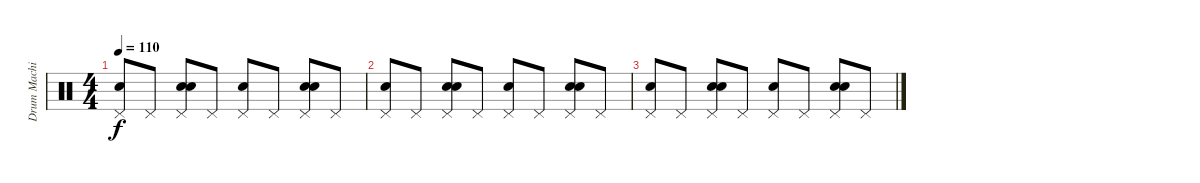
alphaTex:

\track ("Drum Machine" "Drum Machi") {instrument percussion}
\staff {score}
\articulation defaults
\ts (4 4)
\tempo 110
\clef neutral
\ks c
("Pedal Hi-Hat (hit)" "Snare (hit) 2").8{dy f} "Pedal Hi-Hat (hit)".8 ("Pedal Hi-Hat (hit)" "Snare (hit) 2" "Hand Clap (hit)").8 "Pedal Hi-Hat (hit)".8 ("Pedal Hi-Hat (hit)" "Snare (hit) 2").8 "Pedal Hi-Hat (hit)".8 ("Pedal Hi-Hat (hit)" "Snare (hit) 2" "Hand Clap (hit)").8 "Pedal Hi-Hat (hit)".8 |
("Pedal Hi-Hat (hit)" "Snare (hit) 2").8 "Pedal Hi-Hat (hit)".8 ("Pedal Hi-Hat (hit)" "Snare (hit) 2" "Hand Clap (hit)").8 "Pedal Hi-Hat (hit)".8 ("Pedal Hi-Hat (hit)" "Snare (hit) 2").8 "Pedal Hi-Hat (hit)".8 ("Pedal Hi-Hat (hit)" "Snare (hit) 2" "Hand Clap (hit)").8 "Pedal Hi-Hat (hit)".8 |
("Pedal Hi-Hat (hit)" "Snare (hit) 2").8 "Pedal Hi-Hat (hit)".8 ("Pedal Hi-Hat (hit)" "Snare (hit) 2" "Hand Clap (hit)").8 "Pedal Hi-Hat (hit)".8 ("Pedal Hi-Hat (hit)" "Snare (hit) 2").8 "Pedal Hi-Hat (hit)".8 ("Pedal Hi-Hat (hit)" "Snare (hit) 2" "Hand Clap (hit)").8 "Pedal Hi-Hat (hit)".8
